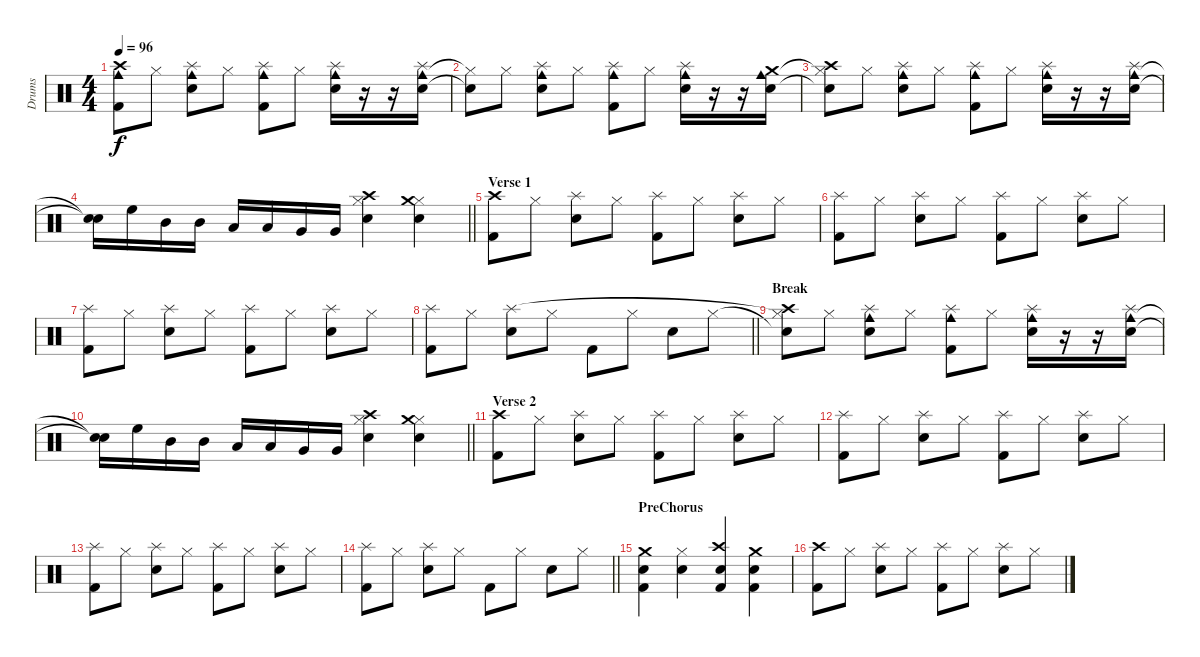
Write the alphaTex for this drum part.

\track ("Drums" "Drums") {instrument percussion}
\staff {score}
\articulation defaults
\ts (4 4)
\tempo 96
\clef neutral
\ks c
("Kick (hit) 2" "Cowbell medium (hit)" "Crash high (hit)").8{dy f} "Hi-Hat (closed)".8 ("Snare (hit) 2" "Cowbell medium (hit)" "Splash (hit)").8 "Hi-Hat (closed)".8 ("Kick (hit) 2" "Cowbell medium (hit)" "Splash (hit)").8 "Hi-Hat (closed)".8 ("Snare (hit) 2" "Cowbell medium (hit)" "Splash (hit)").16 r.16 r.16 ("Snare (hit) 2" "Cowbell medium (hit)" "Splash (hit)").16 |
("Snare (hit) 2"{t} "Hi-Hat (closed)"{t}).8 "Hi-Hat (closed)".8 ("Snare (hit) 2" "Cowbell medium (hit)" "Splash (hit)").8 "Hi-Hat (closed)".8 ("Kick (hit) 2" "Cowbell medium (hit)" "Splash (hit)").8 "Hi-Hat (closed)".8 ("Snare (hit) 2" "Cowbell medium (hit)" "Splash (hit)").16 r.16 r.16 ("Snare (hit) 2" "Cowbell medium (hit)" "Crash medium (hit)").16 |
("Snare (hit) 2"{t} "Hi-Hat (closed)"{t} "Crash high (hit)").8 "Hi-Hat (closed)".8 ("Snare (hit) 2" "Cowbell medium (hit)" "Splash (hit)").8 "Hi-Hat (closed)".8 ("Kick (hit) 2" "Cowbell medium (hit)" "Splash (hit)").8 "Hi-Hat (closed)".8 ("Snare (hit) 2" "Cowbell medium (hit)" "Splash (hit)").16 r.16 r.16 ("Snare (hit) 2" "Cowbell medium (hit)" "Splash (hit)").16 |
\barLineRight lightlight
("Snare (hit)"{t} "Snare (hit)"{t}).16 "High Floor Tom (hit)".16 "Mid Tom (hit)".16 "Mid Tom (hit)".16 "Low Tom (hit)".16 "Low Tom (hit)".16 "Very Low Tom (hit)".16 "Very Low Tom (hit)".16 ("Snare (hit) 2" "Hi-Hat (closed)" "Crash high (hit)").4 ("Snare (hit) 2" "Hi-Hat (closed)" "Crash medium (hit)").4 |
\section ("" "Verse 1")
("Kick (hit) 2" "Crash high (hit)").8 "Hi-Hat (closed)".8 ("Snare (hit) 2" "Splash (hit)").8 "Hi-Hat (closed)".8 ("Kick (hit) 2" "Splash (hit)").8 "Hi-Hat (closed)".8 ("Snare (hit) 2" "Splash (hit)").8 "Hi-Hat (closed)".8 |
("Kick (hit) 2" "Splash (hit)").8 "Hi-Hat (closed)".8 ("Snare (hit) 2" "Splash (hit)").8 "Hi-Hat (closed)".8 ("Kick (hit) 2" "Splash (hit)").8 "Hi-Hat (closed)".8 ("Snare (hit) 2" "Splash (hit)").8 "Hi-Hat (closed)".8 |
("Kick (hit) 2" "Splash (hit)").8 "Hi-Hat (closed)".8 ("Snare (hit) 2" "Splash (hit)").8 "Hi-Hat (closed)".8 ("Kick (hit) 2" "Splash (hit)").8 "Hi-Hat (closed)".8 ("Snare (hit) 2" "Splash (hit)").8 "Hi-Hat (closed)".8 |
\barLineRight lightlight
("Kick (hit) 2" "Splash (hit)").8 "Hi-Hat (closed)".8 ("Snare (hit) 2" "Splash (hit)").8 "Hi-Hat (closed)".8 "Kick (hit) 2".8 "Hi-Hat (closed)".8 "Snare (hit) 2".8 "Hi-Hat (closed)".8 |
\section ("" "Break")
("Snare (hit) 2"{t} "Hi-Hat (closed)"{t} "Crash high (hit)").8 "Hi-Hat (closed)".8 ("Snare (hit) 2" "Cowbell medium (hit)" "Splash (hit)").8 "Hi-Hat (closed)".8 ("Kick (hit) 2" "Cowbell medium (hit)" "Splash (hit)").8 "Hi-Hat (closed)".8 ("Snare (hit) 2" "Cowbell medium (hit)" "Splash (hit)").16 r.16 r.16 ("Snare (hit) 2" "Cowbell medium (hit)" "Splash (hit)").16 |
\barLineRight lightlight
("Snare (hit)"{t} "Snare (hit)"{t}).16 "High Floor Tom (hit)".16 "Mid Tom (hit)".16 "Mid Tom (hit)".16 "Low Tom (hit)".16 "Low Tom (hit)".16 "Very Low Tom (hit)".16 "Very Low Tom (hit)".16 ("Snare (hit) 2" "Hi-Hat (closed)" "Crash high (hit)").4 ("Snare (hit) 2" "Hi-Hat (closed)" "Crash medium (hit)").4 |
\section ("" "Verse 2")
("Kick (hit) 2" "Crash high (hit)").8 "Hi-Hat (closed)".8 ("Snare (hit) 2" "Splash (hit)").8 "Hi-Hat (closed)".8 ("Kick (hit) 2" "Splash (hit)").8 "Hi-Hat (closed)".8 ("Snare (hit) 2" "Splash (hit)").8 "Hi-Hat (closed)".8 |
("Kick (hit) 2" "Splash (hit)").8 "Hi-Hat (closed)".8 ("Snare (hit) 2" "Splash (hit)").8 "Hi-Hat (closed)".8 ("Kick (hit) 2" "Splash (hit)").8 "Hi-Hat (closed)".8 ("Snare (hit) 2" "Splash (hit)").8 "Hi-Hat (closed)".8 |
("Kick (hit) 2" "Splash (hit)").8 "Hi-Hat (closed)".8 ("Snare (hit) 2" "Splash (hit)").8 "Hi-Hat (closed)".8 ("Kick (hit) 2" "Splash (hit)").8 "Hi-Hat (closed)".8 ("Snare (hit) 2" "Splash (hit)").8 "Hi-Hat (closed)".8 |
\barLineRight lightlight
("Kick (hit) 2" "Splash (hit)").8 "Hi-Hat (closed)".8 ("Snare (hit) 2" "Splash (hit)").8 "Hi-Hat (closed)".8 "Kick (hit) 2".8 "Hi-Hat (closed)".8 "Snare (hit) 2".8 "Hi-Hat (closed)".8 |
\section ("" "PreChorus")
("Snare (hit) 2" "Kick (hit) 2" "Crash medium (hit)").4 ("Snare (hit) 2" "Hi-Hat (closed)").4 ("Snare (hit) 2" "Kick (hit) 2" "Crash high (hit)").4 ("Snare (hit) 2" "Kick (hit) 2" "Crash medium (hit)").4 |
("Kick (hit) 2" "Crash high (hit)").8 "Hi-Hat (closed)".8 ("Snare (hit) 2" "Splash (hit)").8 "Hi-Hat (closed)".8 ("Kick (hit) 2" "Splash (hit)").8 "Hi-Hat (closed)".8 ("Snare (hit) 2" "Splash (hit)").8 "Hi-Hat (closed)".8
